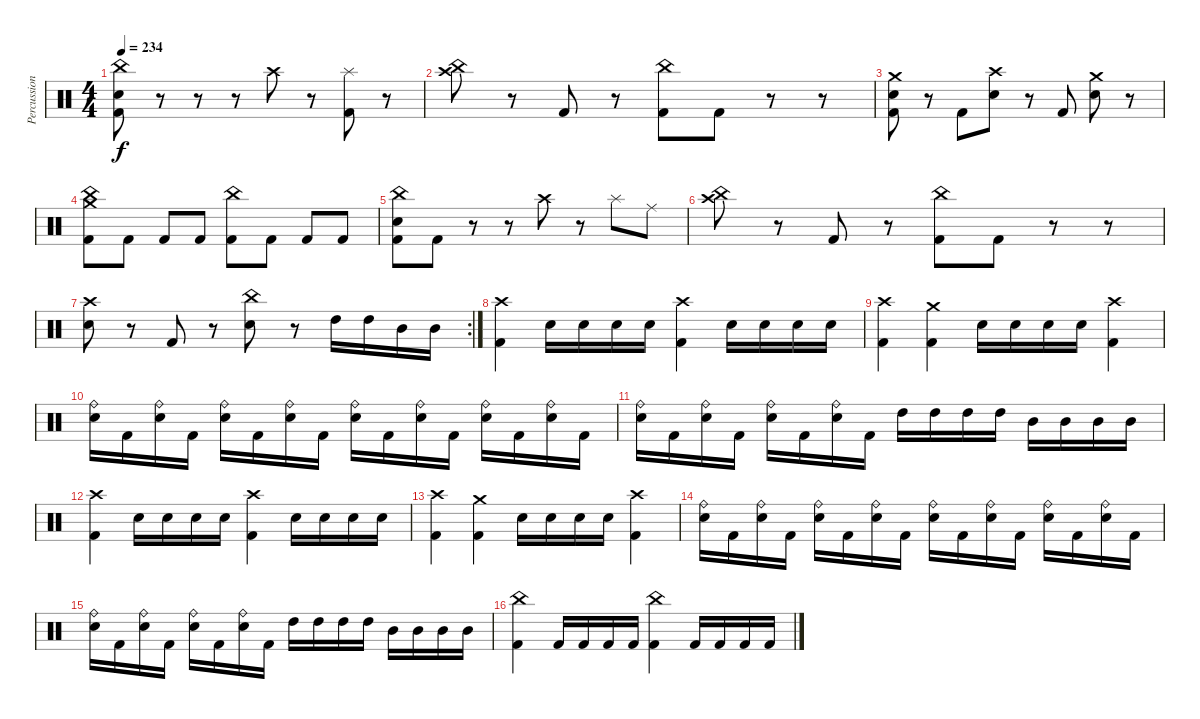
\track ("Percussion" "Percussion") {instrument percussion}
\staff {score}
\articulation defaults
\ts (4 4)
\tempo 234
\clef neutral
\ks c
("China (hit)" "Electric Snare (hit)" "Kick (hit) 2").8{dy f} r.8 r.8 r.8 "Crash high (hit)".8 r.8 ("Splash (hit)" "Kick (hit) 2").8 r.8 |
("China (hit)" "Crash high (hit)").8 r.8 "Kick (hit) 2".8 r.8 ("China (hit)" "Kick (hit) 2").8 "Kick (hit) 2".8 r.8 r.8 |
("Crash medium (hit)" "Electric Snare (hit)" "Kick (hit) 2").8 r.8 "Kick (hit) 2".8 ("Crash high (hit)" "Electric Snare (hit)").8 r.8 "Kick (hit) 2".8 ("Crash medium (hit)" "Electric Snare (hit)").8 r.8 |
("Crash medium (hit)" "China (hit)" "Kick (hit) 2").8 "Kick (hit) 2".8 "Kick (hit) 2".8 "Kick (hit) 2".8 ("China (hit)" "Kick (hit) 2").8 "Kick (hit) 2".8 "Kick (hit) 2".8 "Kick (hit) 2".8 |
("China (hit)" "Electric Snare (hit)" "Kick (hit) 2").8 "Kick (hit) 2".8 r.8 r.8 "Crash high (hit)".8 r.8 "Splash (hit)".8 "Ride (middle)".8 |
("China (hit)" "Crash high (hit)").8 r.8 "Kick (hit) 2".8 r.8 ("China (hit)" "Kick (hit) 2").8 "Kick (hit) 2".8 r.8 r.8 |
\rc 2
("Crash high (hit)" "Electric Snare (hit)").8 r.8 "Kick (hit) 2".8 r.8 ("China (hit)" "Electric Snare (hit)").8 r.8 "High Tom (hit)".16 "High Tom (hit)".16 "Mid Tom (hit)".16 "Mid Tom (hit)".16 |
("Crash high (hit)" "Kick (hit) 2").4 "Electric Snare (hit)".16 "Electric Snare (hit)".16 "Electric Snare (hit)".16 "Electric Snare (hit)".16 ("Crash high (hit)" "Kick (hit) 2").4 "Electric Snare (hit)".16 "Electric Snare (hit)".16 "Electric Snare (hit)".16 "Electric Snare (hit)".16 |
("Crash high (hit)" "Kick (hit) 2").4 ("Crash medium (hit)" "Kick (hit) 2").4 "Electric Snare (hit)".16 "Electric Snare (hit)".16 "Electric Snare (hit)".16 "Electric Snare (hit)".16 ("Crash high (hit)" "Kick (hit) 2").4 |
("Ride (bell)" "Electric Snare (hit)").16 "Kick (hit) 2".16 ("Ride (bell)" "Electric Snare (hit)").16 "Kick (hit) 2".16 ("Ride (bell)" "Electric Snare (hit)").16 "Kick (hit) 2".16 ("Ride (bell)" "Electric Snare (hit)").16 "Kick (hit) 2".16 ("Ride (bell)" "Electric Snare (hit)").16 "Kick (hit) 2".16 ("Ride (bell)" "Electric Snare (hit)").16 "Kick (hit) 2".16 ("Ride (bell)" "Electric Snare (hit)").16 "Kick (hit) 2".16 ("Ride (bell)" "Electric Snare (hit)").16 "Kick (hit) 2".16 |
("Ride (bell)" "Electric Snare (hit)").16 "Kick (hit) 2".16 ("Ride (bell)" "Electric Snare (hit)").16 "Kick (hit) 2".16 ("Ride (bell)" "Electric Snare (hit)").16 "Kick (hit) 2".16 ("Ride (bell)" "Electric Snare (hit)").16 "Kick (hit) 2".16 "High Tom (hit)".16 "High Tom (hit)".16 "High Tom (hit)".16 "High Tom (hit)".16 "Mid Tom (hit)".16 "Mid Tom (hit)".16 "Mid Tom (hit)".16 "Mid Tom (hit)".16 |
("Crash high (hit)" "Kick (hit) 2").4 "Electric Snare (hit)".16 "Electric Snare (hit)".16 "Electric Snare (hit)".16 "Electric Snare (hit)".16 ("Crash high (hit)" "Kick (hit) 2").4 "Electric Snare (hit)".16 "Electric Snare (hit)".16 "Electric Snare (hit)".16 "Electric Snare (hit)".16 |
("Crash high (hit)" "Kick (hit) 2").4 ("Crash medium (hit)" "Kick (hit) 2").4 "Electric Snare (hit)".16 "Electric Snare (hit)".16 "Electric Snare (hit)".16 "Electric Snare (hit)".16 ("Crash high (hit)" "Kick (hit) 2").4 |
("Ride (bell)" "Electric Snare (hit)").16 "Kick (hit) 2".16 ("Ride (bell)" "Electric Snare (hit)").16 "Kick (hit) 2".16 ("Ride (bell)" "Electric Snare (hit)").16 "Kick (hit) 2".16 ("Ride (bell)" "Electric Snare (hit)").16 "Kick (hit) 2".16 ("Ride (bell)" "Electric Snare (hit)").16 "Kick (hit) 2".16 ("Ride (bell)" "Electric Snare (hit)").16 "Kick (hit) 2".16 ("Ride (bell)" "Electric Snare (hit)").16 "Kick (hit) 2".16 ("Ride (bell)" "Electric Snare (hit)").16 "Kick (hit) 2".16 |
("Ride (bell)" "Electric Snare (hit)").16 "Kick (hit) 2".16 ("Ride (bell)" "Electric Snare (hit)").16 "Kick (hit) 2".16 ("Ride (bell)" "Electric Snare (hit)").16 "Kick (hit) 2".16 ("Ride (bell)" "Electric Snare (hit)").16 "Kick (hit) 2".16 "High Tom (hit)".16 "High Tom (hit)".16 "High Tom (hit)".16 "High Tom (hit)".16 "Mid Tom (hit)".16 "Mid Tom (hit)".16 "Mid Tom (hit)".16 "Mid Tom (hit)".16 |
("China (hit)" "Kick (hit) 2").4 "Kick (hit) 2".16 "Kick (hit) 2".16 "Kick (hit) 2".16 "Kick (hit) 2".16 ("China (hit)" "Kick (hit) 2").4 "Kick (hit) 2".16 "Kick (hit) 2".16 "Kick (hit) 2".16 "Kick (hit) 2".16
